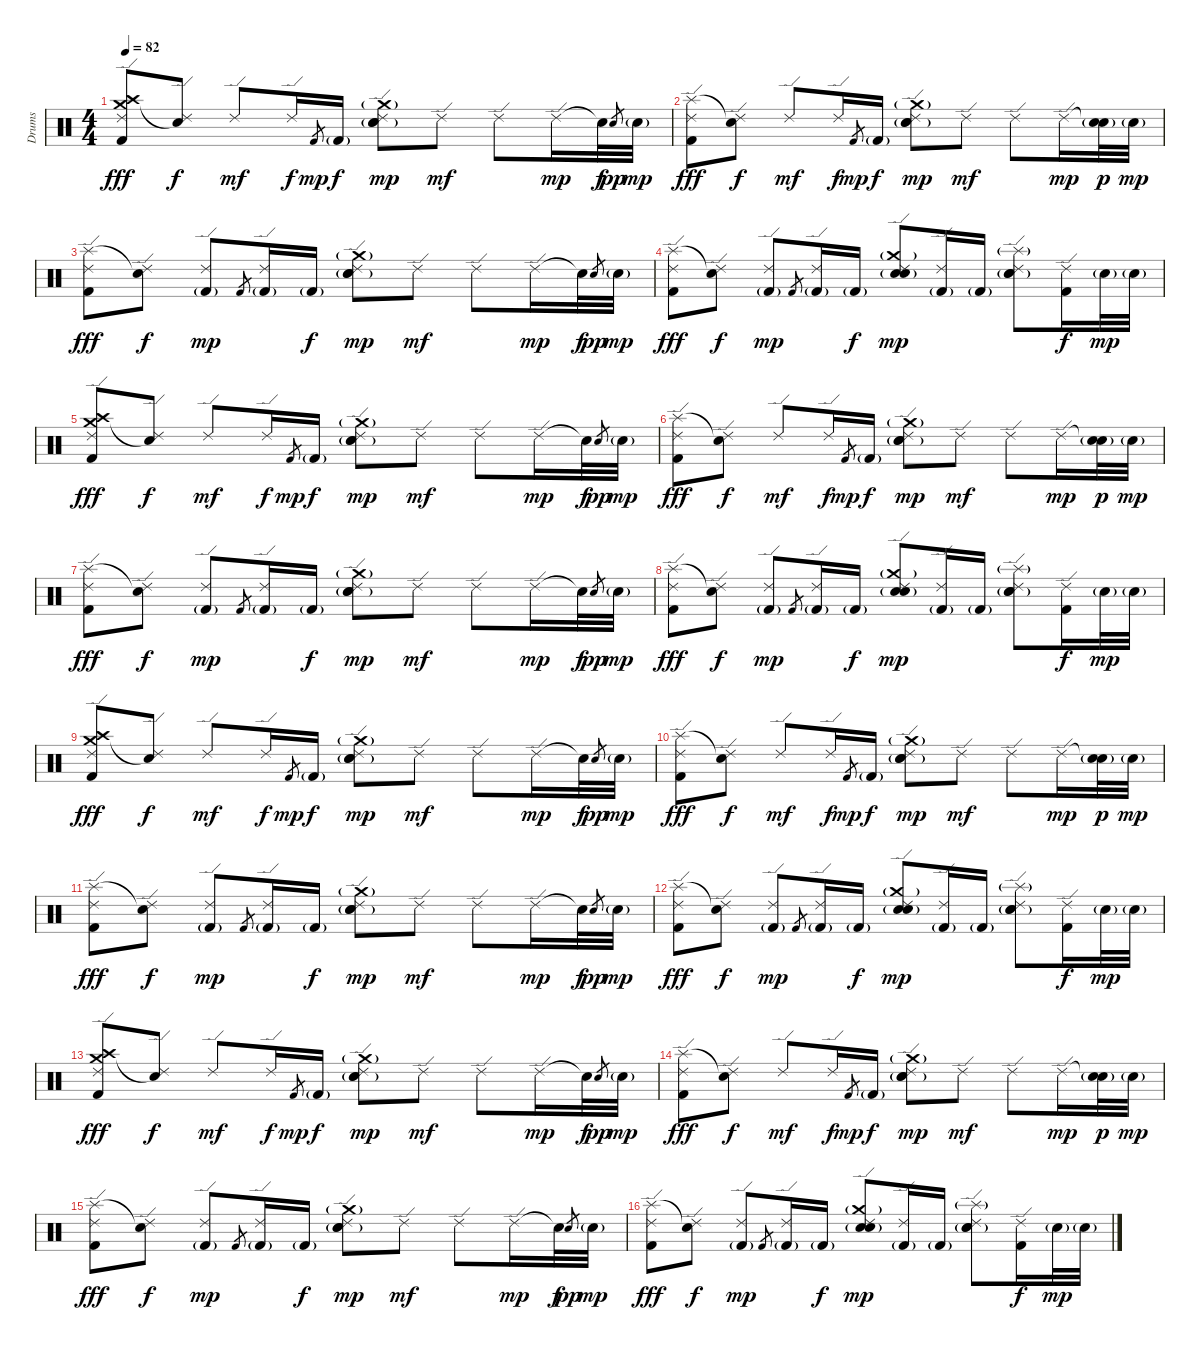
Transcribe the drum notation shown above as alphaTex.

\track ("Drums" "Drums") {instrument percussion}
\staff {score}
\articulation defaults
\ts (4 4)
\tempo 82
\clef neutral
\ks c
("Ride (edge) 2" "Crash high (hit)" "Crash medium (hit)" "Kick (hit) 2").8{dy fff} ("Ride (edge) 2" "Snare (hit)"{t}).8{dy f} "Ride (edge) 2".8{dy mf} "Ride (edge) 2".16{dy f} "Kick (hit) 2".8{gr dy mp} "Kick (hit) 2"{g}.16{dy f} ("Ride (edge) 2" "Crash medium (hit)"{g} "Snare (hit) 2"{g} "Electric Snare (hit)").8{dy mp} "Ride (edge) 2".8{dy mf} "Ride (edge) 2".8 "Ride (edge) 2".16{dy mp} "Snare (hit)"{t}.32{dy f} "Electric Snare (hit)".8{gr dy pp} "Electric Snare (hit)"{g}.32{dy mp} |
("Ride (edge) 2" "Splash (hit)" "Kick (hit) 2").8{dy fff} ("Ride (edge) 2" "Snare (hit)"{t}).8{dy f} "Ride (edge) 2".8{dy mf} "Ride (edge) 2".16{dy f} "Kick (hit) 2".8{gr dy mp} "Kick (hit) 2"{g}.16{dy f} ("Ride (edge) 2" "Crash medium (hit)"{g} "Snare (hit) 2"{g} "Electric Snare (hit)").8{dy mp} "Ride (edge) 2".8{dy mf} "Ride (edge) 2".8 "Ride (edge) 2".16{dy mp} ("Snare (hit)"{t} "Electric Snare (hit)"{g}).32{dy p} "Electric Snare (hit)"{g}.32{dy mp} |
("Ride (edge) 2" "Splash (hit)" "Kick (hit) 2").8{dy fff} ("Ride (edge) 2" "Snare (hit)"{t}).8{dy f} ("Ride (edge) 2" "Kick (hit) 2"{g}).8{dy mp} "Kick (hit) 2".8{gr} ("Ride (edge) 2" "Kick (hit) 2"{g}).16 "Kick (hit) 2"{g}.16{dy f} ("Ride (edge) 2" "Crash medium (hit)"{g} "Snare (hit) 2"{g} "Electric Snare (hit)").8{dy mp} "Ride (edge) 2".8{dy mf} "Ride (edge) 2".8 "Ride (edge) 2".16{dy mp} "Snare (hit)"{t}.32{dy f} "Electric Snare (hit)".8{gr dy pp} "Electric Snare (hit)"{g}.32{dy mp} |
("Ride (edge) 2" "Splash (hit)" "Kick (hit) 2").8{dy fff} ("Ride (edge) 2" "Snare (hit)"{t}).8{dy f} ("Ride (edge) 2" "Kick (hit) 2"{g}).8{dy mp} "Kick (hit) 2".8{gr} ("Ride (edge) 2" "Kick (hit) 2"{g}).16 "Kick (hit) 2"{g}.16{dy f} ("Ride (edge) 2" "Crash medium (hit)"{g} "Snare (hit) 2"{g} "Electric Snare (hit)").8{dy mp} ("Ride (edge) 2" "Kick (hit) 2"{g}).16 "Kick (hit) 2"{g}.16 ("Ride (edge) 2" "Splash (hit)"{g} "Snare (hit) 2"{g} "Electric Snare (hit)").8 ("Ride (edge) 2" "Kick (hit) 2").16{dy f} "Electric Snare (hit)"{g}.32{dy mp} "Electric Snare (hit)"{g}.32 |
("Ride (edge) 2" "Crash high (hit)" "Crash medium (hit)" "Kick (hit) 2").8{dy fff} ("Ride (edge) 2" "Snare (hit)"{t}).8{dy f} "Ride (edge) 2".8{dy mf} "Ride (edge) 2".16{dy f} "Kick (hit) 2".8{gr dy mp} "Kick (hit) 2"{g}.16{dy f} ("Ride (edge) 2" "Crash medium (hit)"{g} "Snare (hit) 2"{g} "Electric Snare (hit)").8{dy mp} "Ride (edge) 2".8{dy mf} "Ride (edge) 2".8 "Ride (edge) 2".16{dy mp} "Snare (hit)"{t}.32{dy f} "Electric Snare (hit)".8{gr dy pp} "Electric Snare (hit)"{g}.32{dy mp} |
("Ride (edge) 2" "Splash (hit)" "Kick (hit) 2").8{dy fff} ("Ride (edge) 2" "Snare (hit)"{t}).8{dy f} "Ride (edge) 2".8{dy mf} "Ride (edge) 2".16{dy f} "Kick (hit) 2".8{gr dy mp} "Kick (hit) 2"{g}.16{dy f} ("Ride (edge) 2" "Crash medium (hit)"{g} "Snare (hit) 2"{g} "Electric Snare (hit)").8{dy mp} "Ride (edge) 2".8{dy mf} "Ride (edge) 2".8 "Ride (edge) 2".16{dy mp} ("Snare (hit)"{t} "Electric Snare (hit)"{g}).32{dy p} "Electric Snare (hit)"{g}.32{dy mp} |
("Ride (edge) 2" "Splash (hit)" "Kick (hit) 2").8{dy fff} ("Ride (edge) 2" "Snare (hit)"{t}).8{dy f} ("Ride (edge) 2" "Kick (hit) 2"{g}).8{dy mp} "Kick (hit) 2".8{gr} ("Ride (edge) 2" "Kick (hit) 2"{g}).16 "Kick (hit) 2"{g}.16{dy f} ("Ride (edge) 2" "Crash medium (hit)"{g} "Snare (hit) 2"{g} "Electric Snare (hit)").8{dy mp} "Ride (edge) 2".8{dy mf} "Ride (edge) 2".8 "Ride (edge) 2".16{dy mp} "Snare (hit)"{t}.32{dy f} "Electric Snare (hit)".8{gr dy pp} "Electric Snare (hit)"{g}.32{dy mp} |
("Ride (edge) 2" "Splash (hit)" "Kick (hit) 2").8{dy fff} ("Ride (edge) 2" "Snare (hit)"{t}).8{dy f} ("Ride (edge) 2" "Kick (hit) 2"{g}).8{dy mp} "Kick (hit) 2".8{gr} ("Ride (edge) 2" "Kick (hit) 2"{g}).16 "Kick (hit) 2"{g}.16{dy f} ("Ride (edge) 2" "Crash medium (hit)"{g} "Snare (hit) 2"{g} "Electric Snare (hit)").8{dy mp} ("Ride (edge) 2" "Kick (hit) 2"{g}).16 "Kick (hit) 2"{g}.16 ("Ride (edge) 2" "Splash (hit)"{g} "Snare (hit) 2"{g} "Electric Snare (hit)").8 ("Ride (edge) 2" "Kick (hit) 2").16{dy f} "Electric Snare (hit)"{g}.32{dy mp} "Electric Snare (hit)"{g}.32 |
("Ride (edge) 2" "Crash high (hit)" "Crash medium (hit)" "Kick (hit) 2").8{dy fff} ("Ride (edge) 2" "Snare (hit)"{t}).8{dy f} "Ride (edge) 2".8{dy mf} "Ride (edge) 2".16{dy f} "Kick (hit) 2".8{gr dy mp} "Kick (hit) 2"{g}.16{dy f} ("Ride (edge) 2" "Crash medium (hit)"{g} "Snare (hit) 2"{g} "Electric Snare (hit)").8{dy mp} "Ride (edge) 2".8{dy mf} "Ride (edge) 2".8 "Ride (edge) 2".16{dy mp} "Snare (hit)"{t}.32{dy f} "Electric Snare (hit)".8{gr dy pp} "Electric Snare (hit)"{g}.32{dy mp} |
("Ride (edge) 2" "Splash (hit)" "Kick (hit) 2").8{dy fff} ("Ride (edge) 2" "Snare (hit)"{t}).8{dy f} "Ride (edge) 2".8{dy mf} "Ride (edge) 2".16{dy f} "Kick (hit) 2".8{gr dy mp} "Kick (hit) 2"{g}.16{dy f} ("Ride (edge) 2" "Crash medium (hit)"{g} "Snare (hit) 2"{g} "Electric Snare (hit)").8{dy mp} "Ride (edge) 2".8{dy mf} "Ride (edge) 2".8 "Ride (edge) 2".16{dy mp} ("Snare (hit)"{t} "Electric Snare (hit)"{g}).32{dy p} "Electric Snare (hit)"{g}.32{dy mp} |
("Ride (edge) 2" "Splash (hit)" "Kick (hit) 2").8{dy fff} ("Ride (edge) 2" "Snare (hit)"{t}).8{dy f} ("Ride (edge) 2" "Kick (hit) 2"{g}).8{dy mp} "Kick (hit) 2".8{gr} ("Ride (edge) 2" "Kick (hit) 2"{g}).16 "Kick (hit) 2"{g}.16{dy f} ("Ride (edge) 2" "Crash medium (hit)"{g} "Snare (hit) 2"{g} "Electric Snare (hit)").8{dy mp} "Ride (edge) 2".8{dy mf} "Ride (edge) 2".8 "Ride (edge) 2".16{dy mp} "Snare (hit)"{t}.32{dy f} "Electric Snare (hit)".8{gr dy pp} "Electric Snare (hit)"{g}.32{dy mp} |
("Ride (edge) 2" "Splash (hit)" "Kick (hit) 2").8{dy fff} ("Ride (edge) 2" "Snare (hit)"{t}).8{dy f} ("Ride (edge) 2" "Kick (hit) 2"{g}).8{dy mp} "Kick (hit) 2".8{gr} ("Ride (edge) 2" "Kick (hit) 2"{g}).16 "Kick (hit) 2"{g}.16{dy f} ("Ride (edge) 2" "Crash medium (hit)"{g} "Snare (hit) 2"{g} "Electric Snare (hit)").8{dy mp} ("Ride (edge) 2" "Kick (hit) 2"{g}).16 "Kick (hit) 2"{g}.16 ("Ride (edge) 2" "Splash (hit)"{g} "Snare (hit) 2"{g} "Electric Snare (hit)").8 ("Ride (edge) 2" "Kick (hit) 2").16{dy f} "Electric Snare (hit)"{g}.32{dy mp} "Electric Snare (hit)"{g}.32 |
("Ride (edge) 2" "Crash high (hit)" "Crash medium (hit)" "Kick (hit) 2").8{dy fff} ("Ride (edge) 2" "Snare (hit)"{t}).8{dy f} "Ride (edge) 2".8{dy mf} "Ride (edge) 2".16{dy f} "Kick (hit) 2".8{gr dy mp} "Kick (hit) 2"{g}.16{dy f} ("Ride (edge) 2" "Crash medium (hit)"{g} "Snare (hit) 2"{g} "Electric Snare (hit)").8{dy mp} "Ride (edge) 2".8{dy mf} "Ride (edge) 2".8 "Ride (edge) 2".16{dy mp} "Snare (hit)"{t}.32{dy f} "Electric Snare (hit)".8{gr dy pp} "Electric Snare (hit)"{g}.32{dy mp} |
("Ride (edge) 2" "Splash (hit)" "Kick (hit) 2").8{dy fff} ("Ride (edge) 2" "Snare (hit)"{t}).8{dy f} "Ride (edge) 2".8{dy mf} "Ride (edge) 2".16{dy f} "Kick (hit) 2".8{gr dy mp} "Kick (hit) 2"{g}.16{dy f} ("Ride (edge) 2" "Crash medium (hit)"{g} "Snare (hit) 2"{g} "Electric Snare (hit)").8{dy mp} "Ride (edge) 2".8{dy mf} "Ride (edge) 2".8 "Ride (edge) 2".16{dy mp} ("Snare (hit)"{t} "Electric Snare (hit)"{g}).32{dy p} "Electric Snare (hit)"{g}.32{dy mp} |
("Ride (edge) 2" "Splash (hit)" "Kick (hit) 2").8{dy fff} ("Ride (edge) 2" "Snare (hit)"{t}).8{dy f} ("Ride (edge) 2" "Kick (hit) 2"{g}).8{dy mp} "Kick (hit) 2".8{gr} ("Ride (edge) 2" "Kick (hit) 2"{g}).16 "Kick (hit) 2"{g}.16{dy f} ("Ride (edge) 2" "Crash medium (hit)"{g} "Snare (hit) 2"{g} "Electric Snare (hit)").8{dy mp} "Ride (edge) 2".8{dy mf} "Ride (edge) 2".8 "Ride (edge) 2".16{dy mp} "Snare (hit)"{t}.32{dy f} "Electric Snare (hit)".8{gr dy pp} "Electric Snare (hit)"{g}.32{dy mp} |
("Ride (edge) 2" "Splash (hit)" "Kick (hit) 2").8{dy fff} ("Ride (edge) 2" "Snare (hit)"{t}).8{dy f} ("Ride (edge) 2" "Kick (hit) 2"{g}).8{dy mp} "Kick (hit) 2".8{gr} ("Ride (edge) 2" "Kick (hit) 2"{g}).16 "Kick (hit) 2"{g}.16{dy f} ("Ride (edge) 2" "Crash medium (hit)"{g} "Snare (hit) 2"{g} "Electric Snare (hit)").8{dy mp} ("Ride (edge) 2" "Kick (hit) 2"{g}).16 "Kick (hit) 2"{g}.16 ("Ride (edge) 2" "Splash (hit)"{g} "Snare (hit) 2"{g} "Electric Snare (hit)").8 ("Ride (edge) 2" "Kick (hit) 2").16{dy f} "Electric Snare (hit)"{g}.32{dy mp} "Electric Snare (hit)"{g}.32
